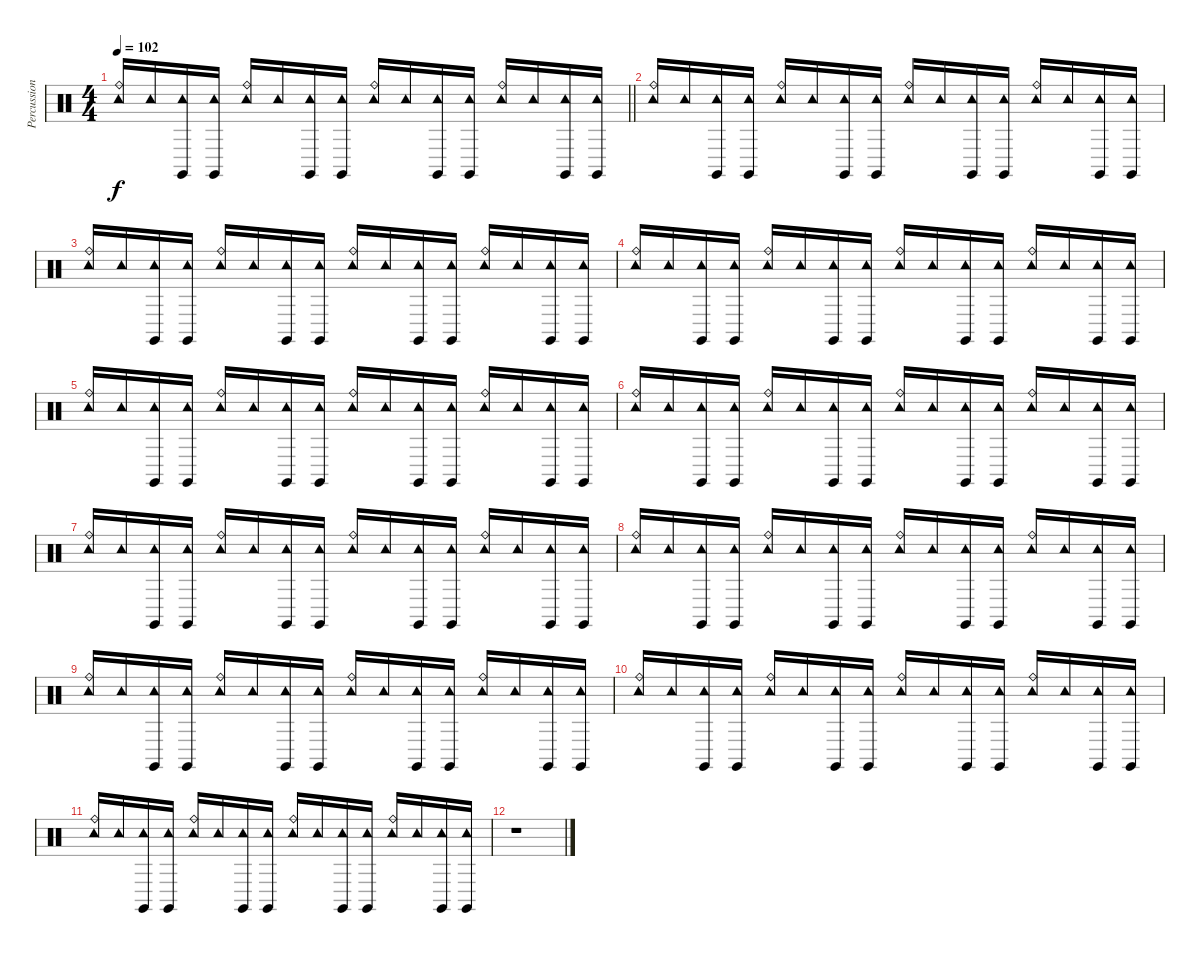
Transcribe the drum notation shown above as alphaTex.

\track ("Percussions" "Percussion") {instrument percussion}
\staff {score}
\articulation defaults
\ts (4 4)
\tempo 102
\clef neutral
\barLineRight lightlight
\ks c
("Tambourine (hit)" "Ride (bell)").16{dy f} "Tambourine (hit)".16 ("Tambourine (hit)" "Claves (hit)").16 ("Tambourine (hit)" "Claves (hit)").16 ("Tambourine (hit)" "Ride (bell)").16 "Tambourine (hit)".16 ("Tambourine (hit)" "Claves (hit)").16 ("Tambourine (hit)" "Claves (hit)").16 ("Tambourine (hit)" "Ride (bell)").16 "Tambourine (hit)".16 ("Tambourine (hit)" "Claves (hit)").16 ("Tambourine (hit)" "Claves (hit)").16 ("Tambourine (hit)" "Ride (bell)").16 "Tambourine (hit)".16 ("Tambourine (hit)" "Claves (hit)").16 ("Tambourine (hit)" "Claves (hit)").16 |
("Tambourine (hit)" "Ride (bell)").16 "Tambourine (hit)".16 ("Tambourine (hit)" "Claves (hit)").16 ("Tambourine (hit)" "Claves (hit)").16 ("Tambourine (hit)" "Ride (bell)").16 "Tambourine (hit)".16 ("Tambourine (hit)" "Claves (hit)").16 ("Tambourine (hit)" "Claves (hit)").16 ("Tambourine (hit)" "Ride (bell)").16 "Tambourine (hit)".16 ("Tambourine (hit)" "Claves (hit)").16 ("Tambourine (hit)" "Claves (hit)").16 ("Tambourine (hit)" "Ride (bell)").16 "Tambourine (hit)".16 ("Tambourine (hit)" "Claves (hit)").16 ("Tambourine (hit)" "Claves (hit)").16 |
("Tambourine (hit)" "Ride (bell)").16 "Tambourine (hit)".16 ("Tambourine (hit)" "Claves (hit)").16 ("Tambourine (hit)" "Claves (hit)").16 ("Tambourine (hit)" "Ride (bell)").16 "Tambourine (hit)".16 ("Tambourine (hit)" "Claves (hit)").16 ("Tambourine (hit)" "Claves (hit)").16 ("Tambourine (hit)" "Ride (bell)").16 "Tambourine (hit)".16 ("Tambourine (hit)" "Claves (hit)").16 ("Tambourine (hit)" "Claves (hit)").16 ("Tambourine (hit)" "Ride (bell)").16 "Tambourine (hit)".16 ("Tambourine (hit)" "Claves (hit)").16 ("Tambourine (hit)" "Claves (hit)").16 |
("Tambourine (hit)" "Ride (bell)").16 "Tambourine (hit)".16 ("Tambourine (hit)" "Claves (hit)").16 ("Tambourine (hit)" "Claves (hit)").16 ("Tambourine (hit)" "Ride (bell)").16 "Tambourine (hit)".16 ("Tambourine (hit)" "Claves (hit)").16 ("Tambourine (hit)" "Claves (hit)").16 ("Tambourine (hit)" "Ride (bell)").16 "Tambourine (hit)".16 ("Tambourine (hit)" "Claves (hit)").16 ("Tambourine (hit)" "Claves (hit)").16 ("Tambourine (hit)" "Ride (bell)").16 "Tambourine (hit)".16 ("Tambourine (hit)" "Claves (hit)").16 ("Tambourine (hit)" "Claves (hit)").16 |
("Tambourine (hit)" "Ride (bell)").16 "Tambourine (hit)".16 ("Tambourine (hit)" "Claves (hit)").16 ("Tambourine (hit)" "Claves (hit)").16 ("Tambourine (hit)" "Ride (bell)").16 "Tambourine (hit)".16 ("Tambourine (hit)" "Claves (hit)").16 ("Tambourine (hit)" "Claves (hit)").16 ("Tambourine (hit)" "Ride (bell)").16 "Tambourine (hit)".16 ("Tambourine (hit)" "Claves (hit)").16 ("Tambourine (hit)" "Claves (hit)").16 ("Tambourine (hit)" "Ride (bell)").16 "Tambourine (hit)".16 ("Tambourine (hit)" "Claves (hit)").16 ("Tambourine (hit)" "Claves (hit)").16 |
("Tambourine (hit)" "Ride (bell)").16 "Tambourine (hit)".16 ("Tambourine (hit)" "Claves (hit)").16 ("Tambourine (hit)" "Claves (hit)").16 ("Tambourine (hit)" "Ride (bell)").16 "Tambourine (hit)".16 ("Tambourine (hit)" "Claves (hit)").16 ("Tambourine (hit)" "Claves (hit)").16 ("Tambourine (hit)" "Ride (bell)").16 "Tambourine (hit)".16 ("Tambourine (hit)" "Claves (hit)").16 ("Tambourine (hit)" "Claves (hit)").16 ("Tambourine (hit)" "Ride (bell)").16 "Tambourine (hit)".16 ("Tambourine (hit)" "Claves (hit)").16 ("Tambourine (hit)" "Claves (hit)").16 |
("Tambourine (hit)" "Ride (bell)").16 "Tambourine (hit)".16 ("Tambourine (hit)" "Claves (hit)").16 ("Tambourine (hit)" "Claves (hit)").16 ("Tambourine (hit)" "Ride (bell)").16 "Tambourine (hit)".16 ("Tambourine (hit)" "Claves (hit)").16 ("Tambourine (hit)" "Claves (hit)").16 ("Tambourine (hit)" "Ride (bell)").16 "Tambourine (hit)".16 ("Tambourine (hit)" "Claves (hit)").16 ("Tambourine (hit)" "Claves (hit)").16 ("Tambourine (hit)" "Ride (bell)").16 "Tambourine (hit)".16 ("Tambourine (hit)" "Claves (hit)").16 ("Tambourine (hit)" "Claves (hit)").16 |
("Tambourine (hit)" "Ride (bell)").16 "Tambourine (hit)".16 ("Tambourine (hit)" "Claves (hit)").16 ("Tambourine (hit)" "Claves (hit)").16 ("Tambourine (hit)" "Ride (bell)").16 "Tambourine (hit)".16 ("Tambourine (hit)" "Claves (hit)").16 ("Tambourine (hit)" "Claves (hit)").16 ("Tambourine (hit)" "Ride (bell)").16 "Tambourine (hit)".16 ("Tambourine (hit)" "Claves (hit)").16 ("Tambourine (hit)" "Claves (hit)").16 ("Tambourine (hit)" "Ride (bell)").16 "Tambourine (hit)".16 ("Tambourine (hit)" "Claves (hit)").16 ("Tambourine (hit)" "Claves (hit)").16 |
("Tambourine (hit)" "Ride (bell)").16 "Tambourine (hit)".16 ("Tambourine (hit)" "Claves (hit)").16 ("Tambourine (hit)" "Claves (hit)").16 ("Tambourine (hit)" "Ride (bell)").16 "Tambourine (hit)".16 ("Tambourine (hit)" "Claves (hit)").16 ("Tambourine (hit)" "Claves (hit)").16 ("Tambourine (hit)" "Ride (bell)").16 "Tambourine (hit)".16 ("Tambourine (hit)" "Claves (hit)").16 ("Tambourine (hit)" "Claves (hit)").16 ("Tambourine (hit)" "Ride (bell)").16 "Tambourine (hit)".16 ("Tambourine (hit)" "Claves (hit)").16 ("Tambourine (hit)" "Claves (hit)").16 |
("Tambourine (hit)" "Ride (bell)").16 "Tambourine (hit)".16 ("Tambourine (hit)" "Claves (hit)").16 ("Tambourine (hit)" "Claves (hit)").16 ("Tambourine (hit)" "Ride (bell)").16 "Tambourine (hit)".16 ("Tambourine (hit)" "Claves (hit)").16 ("Tambourine (hit)" "Claves (hit)").16 ("Tambourine (hit)" "Ride (bell)").16 "Tambourine (hit)".16 ("Tambourine (hit)" "Claves (hit)").16 ("Tambourine (hit)" "Claves (hit)").16 ("Tambourine (hit)" "Ride (bell)").16 "Tambourine (hit)".16 ("Tambourine (hit)" "Claves (hit)").16 ("Tambourine (hit)" "Claves (hit)").16 |
("Tambourine (hit)" "Ride (bell)").16 "Tambourine (hit)".16 ("Tambourine (hit)" "Claves (hit)").16 ("Tambourine (hit)" "Claves (hit)").16 ("Tambourine (hit)" "Ride (bell)").16 "Tambourine (hit)".16 ("Tambourine (hit)" "Claves (hit)").16 ("Tambourine (hit)" "Claves (hit)").16 ("Tambourine (hit)" "Ride (bell)").16 "Tambourine (hit)".16 ("Tambourine (hit)" "Claves (hit)").16 ("Tambourine (hit)" "Claves (hit)").16 ("Tambourine (hit)" "Ride (bell)").16 "Tambourine (hit)".16 ("Tambourine (hit)" "Claves (hit)").16 ("Tambourine (hit)" "Claves (hit)").16 |
r.1
